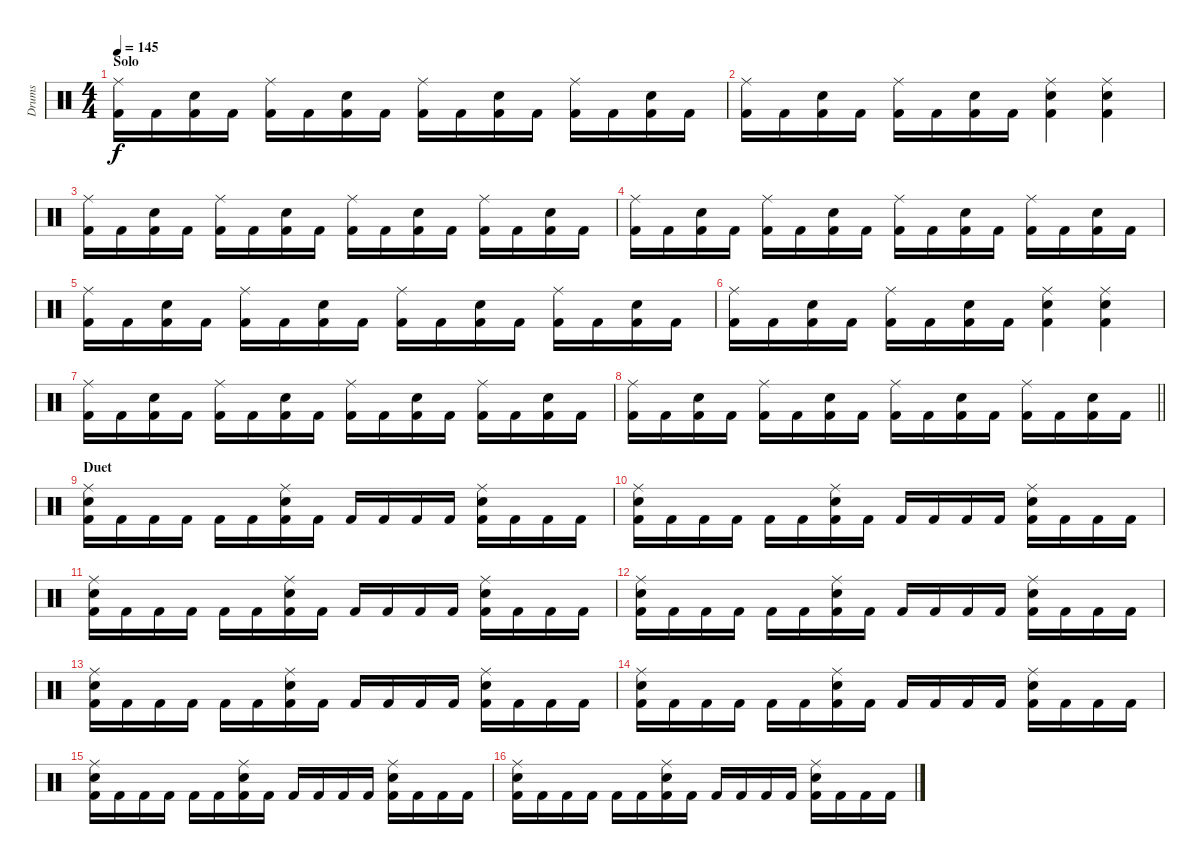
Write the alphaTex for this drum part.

\track ("Drums" "Drums") {instrument percussion}
\staff {score}
\articulation defaults
\ts (4 4)
\section ("" "Solo")
\tempo 145
\clef neutral
\ks c
("Ride (middle)" "Kick (hit) 2").16{dy f} "Kick (hit) 2".16 ("Electric Snare (hit)" "Kick (hit) 2").16 "Kick (hit) 2".16 ("Ride (middle)" "Kick (hit) 2").16 "Kick (hit) 2".16 ("Electric Snare (hit)" "Kick (hit) 2").16 "Kick (hit) 2".16 ("Ride (middle)" "Kick (hit) 2").16 "Kick (hit) 2".16 ("Electric Snare (hit)" "Kick (hit) 2").16 "Kick (hit) 2".16 ("Ride (middle)" "Kick (hit) 2").16 "Kick (hit) 2".16 ("Electric Snare (hit)" "Kick (hit) 2").16 "Kick (hit) 2".16 |
("Ride (middle)" "Kick (hit) 2").16 "Kick (hit) 2".16 ("Electric Snare (hit)" "Kick (hit) 2").16 "Kick (hit) 2".16 ("Ride (middle)" "Kick (hit) 2").16 "Kick (hit) 2".16 ("Electric Snare (hit)" "Kick (hit) 2").16 "Kick (hit) 2".16 ("Ride (middle)" "Electric Snare (hit)" "Kick (hit) 2").4 ("Ride (middle)" "Electric Snare (hit)" "Kick (hit) 2").4 |
("Ride (middle)" "Kick (hit) 2").16 "Kick (hit) 2".16 ("Electric Snare (hit)" "Kick (hit) 2").16 "Kick (hit) 2".16 ("Ride (middle)" "Kick (hit) 2").16 "Kick (hit) 2".16 ("Electric Snare (hit)" "Kick (hit) 2").16 "Kick (hit) 2".16 ("Ride (middle)" "Kick (hit) 2").16 "Kick (hit) 2".16 ("Electric Snare (hit)" "Kick (hit) 2").16 "Kick (hit) 2".16 ("Ride (middle)" "Kick (hit) 2").16 "Kick (hit) 2".16 ("Electric Snare (hit)" "Kick (hit) 2").16 "Kick (hit) 2".16 |
("Ride (middle)" "Kick (hit) 2").16 "Kick (hit) 2".16 ("Electric Snare (hit)" "Kick (hit) 2").16 "Kick (hit) 2".16 ("Ride (middle)" "Kick (hit) 2").16 "Kick (hit) 2".16 ("Electric Snare (hit)" "Kick (hit) 2").16 "Kick (hit) 2".16 ("Ride (middle)" "Kick (hit) 2").16 "Kick (hit) 2".16 ("Electric Snare (hit)" "Kick (hit) 2").16 "Kick (hit) 2".16 ("Ride (middle)" "Kick (hit) 2").16 "Kick (hit) 2".16 ("Electric Snare (hit)" "Kick (hit) 2").16 "Kick (hit) 2".16 |
("Ride (middle)" "Kick (hit) 2").16 "Kick (hit) 2".16 ("Electric Snare (hit)" "Kick (hit) 2").16 "Kick (hit) 2".16 ("Ride (middle)" "Kick (hit) 2").16 "Kick (hit) 2".16 ("Electric Snare (hit)" "Kick (hit) 2").16 "Kick (hit) 2".16 ("Ride (middle)" "Kick (hit) 2").16 "Kick (hit) 2".16 ("Electric Snare (hit)" "Kick (hit) 2").16 "Kick (hit) 2".16 ("Ride (middle)" "Kick (hit) 2").16 "Kick (hit) 2".16 ("Electric Snare (hit)" "Kick (hit) 2").16 "Kick (hit) 2".16 |
("Ride (middle)" "Kick (hit) 2").16 "Kick (hit) 2".16 ("Electric Snare (hit)" "Kick (hit) 2").16 "Kick (hit) 2".16 ("Ride (middle)" "Kick (hit) 2").16 "Kick (hit) 2".16 ("Electric Snare (hit)" "Kick (hit) 2").16 "Kick (hit) 2".16 ("Ride (middle)" "Electric Snare (hit)" "Kick (hit) 2").4 ("Ride (middle)" "Electric Snare (hit)" "Kick (hit) 2").4 |
("Ride (middle)" "Kick (hit) 2").16 "Kick (hit) 2".16 ("Electric Snare (hit)" "Kick (hit) 2").16 "Kick (hit) 2".16 ("Ride (middle)" "Kick (hit) 2").16 "Kick (hit) 2".16 ("Electric Snare (hit)" "Kick (hit) 2").16 "Kick (hit) 2".16 ("Ride (middle)" "Kick (hit) 2").16 "Kick (hit) 2".16 ("Electric Snare (hit)" "Kick (hit) 2").16 "Kick (hit) 2".16 ("Ride (middle)" "Kick (hit) 2").16 "Kick (hit) 2".16 ("Electric Snare (hit)" "Kick (hit) 2").16 "Kick (hit) 2".16 |
\barLineRight lightlight
("Ride (middle)" "Kick (hit) 2").16 "Kick (hit) 2".16 ("Electric Snare (hit)" "Kick (hit) 2").16 "Kick (hit) 2".16 ("Ride (middle)" "Kick (hit) 2").16 "Kick (hit) 2".16 ("Electric Snare (hit)" "Kick (hit) 2").16 "Kick (hit) 2".16 ("Ride (middle)" "Kick (hit) 2").16 "Kick (hit) 2".16 ("Electric Snare (hit)" "Kick (hit) 2").16 "Kick (hit) 2".16 ("Ride (middle)" "Kick (hit) 2").16 "Kick (hit) 2".16 ("Electric Snare (hit)" "Kick (hit) 2").16 "Kick (hit) 2".16 |
\section ("" "Duet")
("Ride (middle)" "Electric Snare (hit)" "Kick (hit) 2").16 "Kick (hit) 2".16 "Kick (hit) 2".16 "Kick (hit) 2".16 "Kick (hit) 2".16 "Kick (hit) 2".16 ("Ride (middle)" "Electric Snare (hit)" "Kick (hit) 2").16 "Kick (hit) 2".16 "Kick (hit) 2".16 "Kick (hit) 2".16 "Kick (hit) 2".16 "Kick (hit) 2".16 ("Ride (middle)" "Electric Snare (hit)" "Kick (hit) 2").16 "Kick (hit) 2".16 "Kick (hit) 2".16 "Kick (hit) 2".16 |
("Ride (middle)" "Electric Snare (hit)" "Kick (hit) 2").16 "Kick (hit) 2".16 "Kick (hit) 2".16 "Kick (hit) 2".16 "Kick (hit) 2".16 "Kick (hit) 2".16 ("Ride (middle)" "Electric Snare (hit)" "Kick (hit) 2").16 "Kick (hit) 2".16 "Kick (hit) 2".16 "Kick (hit) 2".16 "Kick (hit) 2".16 "Kick (hit) 2".16 ("Ride (middle)" "Electric Snare (hit)" "Kick (hit) 2").16 "Kick (hit) 2".16 "Kick (hit) 2".16 "Kick (hit) 2".16 |
("Ride (middle)" "Electric Snare (hit)" "Kick (hit) 2").16 "Kick (hit) 2".16 "Kick (hit) 2".16 "Kick (hit) 2".16 "Kick (hit) 2".16 "Kick (hit) 2".16 ("Ride (middle)" "Electric Snare (hit)" "Kick (hit) 2").16 "Kick (hit) 2".16 "Kick (hit) 2".16 "Kick (hit) 2".16 "Kick (hit) 2".16 "Kick (hit) 2".16 ("Ride (middle)" "Electric Snare (hit)" "Kick (hit) 2").16 "Kick (hit) 2".16 "Kick (hit) 2".16 "Kick (hit) 2".16 |
("Ride (middle)" "Electric Snare (hit)" "Kick (hit) 2").16 "Kick (hit) 2".16 "Kick (hit) 2".16 "Kick (hit) 2".16 "Kick (hit) 2".16 "Kick (hit) 2".16 ("Ride (middle)" "Electric Snare (hit)" "Kick (hit) 2").16 "Kick (hit) 2".16 "Kick (hit) 2".16 "Kick (hit) 2".16 "Kick (hit) 2".16 "Kick (hit) 2".16 ("Ride (middle)" "Electric Snare (hit)" "Kick (hit) 2").16 "Kick (hit) 2".16 "Kick (hit) 2".16 "Kick (hit) 2".16 |
("Ride (middle)" "Electric Snare (hit)" "Kick (hit) 2").16 "Kick (hit) 2".16 "Kick (hit) 2".16 "Kick (hit) 2".16 "Kick (hit) 2".16 "Kick (hit) 2".16 ("Ride (middle)" "Electric Snare (hit)" "Kick (hit) 2").16 "Kick (hit) 2".16 "Kick (hit) 2".16 "Kick (hit) 2".16 "Kick (hit) 2".16 "Kick (hit) 2".16 ("Ride (middle)" "Electric Snare (hit)" "Kick (hit) 2").16 "Kick (hit) 2".16 "Kick (hit) 2".16 "Kick (hit) 2".16 |
("Ride (middle)" "Electric Snare (hit)" "Kick (hit) 2").16 "Kick (hit) 2".16 "Kick (hit) 2".16 "Kick (hit) 2".16 "Kick (hit) 2".16 "Kick (hit) 2".16 ("Ride (middle)" "Electric Snare (hit)" "Kick (hit) 2").16 "Kick (hit) 2".16 "Kick (hit) 2".16 "Kick (hit) 2".16 "Kick (hit) 2".16 "Kick (hit) 2".16 ("Ride (middle)" "Electric Snare (hit)" "Kick (hit) 2").16 "Kick (hit) 2".16 "Kick (hit) 2".16 "Kick (hit) 2".16 |
("Ride (middle)" "Electric Snare (hit)" "Kick (hit) 2").16 "Kick (hit) 2".16 "Kick (hit) 2".16 "Kick (hit) 2".16 "Kick (hit) 2".16 "Kick (hit) 2".16 ("Ride (middle)" "Electric Snare (hit)" "Kick (hit) 2").16 "Kick (hit) 2".16 "Kick (hit) 2".16 "Kick (hit) 2".16 "Kick (hit) 2".16 "Kick (hit) 2".16 ("Ride (middle)" "Electric Snare (hit)" "Kick (hit) 2").16 "Kick (hit) 2".16 "Kick (hit) 2".16 "Kick (hit) 2".16 |
("Ride (middle)" "Electric Snare (hit)" "Kick (hit) 2").16 "Kick (hit) 2".16 "Kick (hit) 2".16 "Kick (hit) 2".16 "Kick (hit) 2".16 "Kick (hit) 2".16 ("Ride (middle)" "Electric Snare (hit)" "Kick (hit) 2").16 "Kick (hit) 2".16 "Kick (hit) 2".16 "Kick (hit) 2".16 "Kick (hit) 2".16 "Kick (hit) 2".16 ("Ride (middle)" "Electric Snare (hit)" "Kick (hit) 2").16 "Kick (hit) 2".16 "Kick (hit) 2".16 "Kick (hit) 2".16
